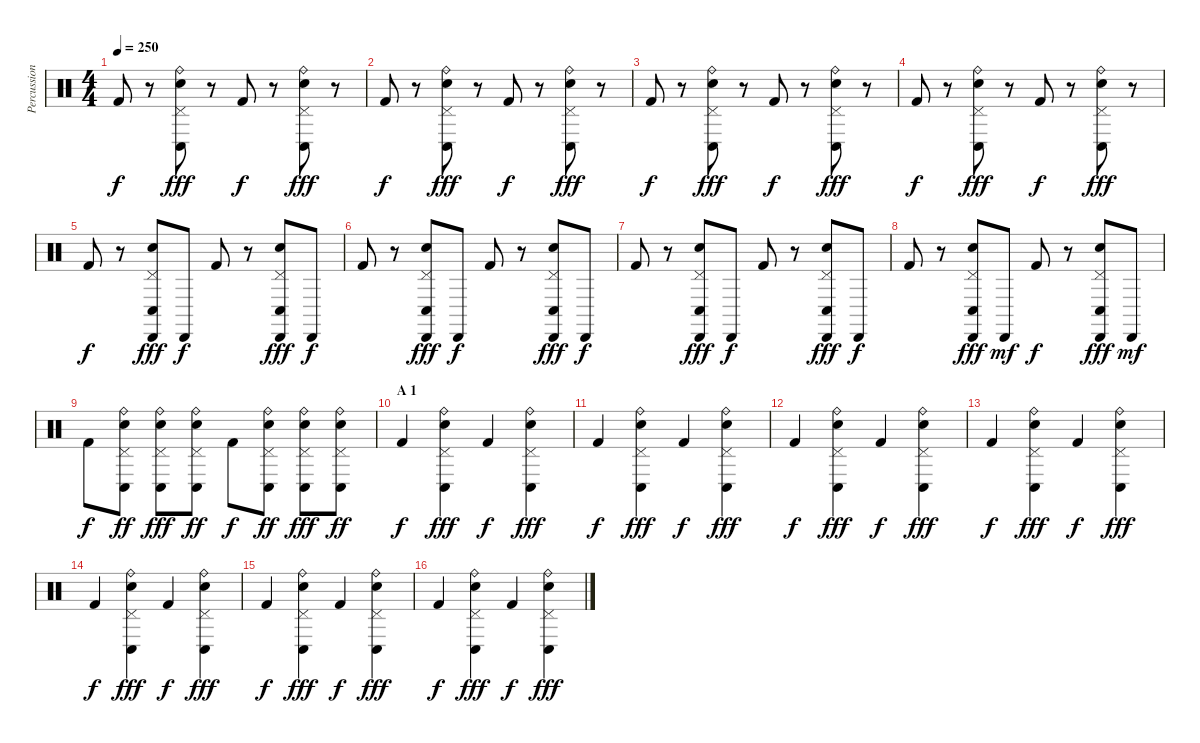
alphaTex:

\track ("Percussion" "Percussion") {instrument percussion}
\staff {score}
\articulation defaults
\ts (4 4)
\tempo 250
\clef neutral
\ks c "Kick (hit) 2".8{dy f}
r.8 ("Ride (bell)" "Pedal Hi-Hat (hit)" "Conga low (hit)" "Electric Snare (hit)").8{dy fff} r.8 "Kick (hit) 2".8{dy f} r.8 ("Ride (bell)" "Pedal Hi-Hat (hit)" "Conga low (hit)" "Electric Snare (hit)").8{dy fff} r.8 |
"Kick (hit) 2".8{dy f} r.8 ("Ride (bell)" "Pedal Hi-Hat (hit)" "Conga low (hit)" "Electric Snare (hit)").8{dy fff} r.8 "Kick (hit) 2".8{dy f} r.8 ("Ride (bell)" "Pedal Hi-Hat (hit)" "Conga low (hit)" "Electric Snare (hit)").8{dy fff} r.8 |
"Kick (hit) 2".8{dy f} r.8 ("Ride (bell)" "Pedal Hi-Hat (hit)" "Conga low (hit)" "Electric Snare (hit)").8{dy fff} r.8 "Kick (hit) 2".8{dy f} r.8 ("Ride (bell)" "Pedal Hi-Hat (hit)" "Conga low (hit)" "Electric Snare (hit)").8{dy fff} r.8 |
"Kick (hit) 2".8{dy f} r.8 ("Ride (bell)" "Pedal Hi-Hat (hit)" "Conga low (hit)" "Electric Snare (hit)").8{dy fff} r.8 "Kick (hit) 2".8{dy f} r.8 ("Ride (bell)" "Pedal Hi-Hat (hit)" "Conga low (hit)" "Electric Snare (hit)").8{dy fff} r.8 |
"Kick (hit) 2".8{dy f} r.8 ("Cabasa (hit)" "Pedal Hi-Hat (hit)" "Conga low (hit)" "Electric Snare (hit)").8{dy fff} "Cabasa (hit)".8{dy f} "Kick (hit) 2".8 r.8 ("Cabasa (hit)" "Pedal Hi-Hat (hit)" "Conga low (hit)" "Electric Snare (hit)").8{dy fff} "Cabasa (hit)".8{dy f} |
"Kick (hit) 2".8 r.8 ("Cabasa (hit)" "Pedal Hi-Hat (hit)" "Conga low (hit)" "Electric Snare (hit)").8{dy fff} "Cabasa (hit)".8{dy f} "Kick (hit) 2".8 r.8 ("Cabasa (hit)" "Pedal Hi-Hat (hit)" "Conga low (hit)" "Electric Snare (hit)").8{dy fff} "Cabasa (hit)".8{dy f} |
"Kick (hit) 2".8 r.8 ("Cabasa (hit)" "Pedal Hi-Hat (hit)" "Conga low (hit)" "Electric Snare (hit)").8{dy fff} "Cabasa (hit)".8{dy f} "Kick (hit) 2".8 r.8 ("Cabasa (hit)" "Pedal Hi-Hat (hit)" "Conga low (hit)" "Electric Snare (hit)").8{dy fff} "Cabasa (hit)".8{dy f} |
"Kick (hit) 2".8 r.8 ("Cabasa (hit)" "Pedal Hi-Hat (hit)" "Conga low (hit)" "Electric Snare (hit)").8{dy fff} "Cabasa (hit)".8{dy mf} "Kick (hit) 2".8{dy f} r.8 ("Cabasa (hit)" "Pedal Hi-Hat (hit)" "Conga low (hit)" "Electric Snare (hit)").8{dy fff} "Cabasa (hit)".8{dy mf} |
"Kick (hit) 2".8{dy f} ("Ride (bell)" "Pedal Hi-Hat (hit)" "Conga low (hit)" "Electric Snare (hit)").8{dy ff} ("Ride (bell)" "Pedal Hi-Hat (hit)" "Conga low (hit)" "Electric Snare (hit)").8{dy fff} ("Ride (bell)" "Pedal Hi-Hat (hit)" "Conga low (hit)" "Electric Snare (hit)").8{dy ff} "Kick (hit) 2".8{dy f} ("Ride (bell)" "Pedal Hi-Hat (hit)" "Conga low (hit)" "Electric Snare (hit)").8{dy ff} ("Ride (bell)" "Pedal Hi-Hat (hit)" "Conga low (hit)" "Electric Snare (hit)").8{dy fff} ("Ride (bell)" "Pedal Hi-Hat (hit)" "Conga low (hit)" "Electric Snare (hit)").8{dy ff} |
\section ("" "A 1")
"Kick (hit) 2".4{dy f} ("Ride (bell)" "Pedal Hi-Hat (hit)" "Conga low (hit)" "Electric Snare (hit)").4{dy fff} "Kick (hit) 2".4{dy f} ("Ride (bell)" "Pedal Hi-Hat (hit)" "Conga low (hit)" "Electric Snare (hit)").4{dy fff} |
"Kick (hit) 2".4{dy f} ("Ride (bell)" "Pedal Hi-Hat (hit)" "Conga low (hit)" "Electric Snare (hit)").4{dy fff} "Kick (hit) 2".4{dy f} ("Ride (bell)" "Pedal Hi-Hat (hit)" "Conga low (hit)" "Electric Snare (hit)").4{dy fff} |
"Kick (hit) 2".4{dy f} ("Ride (bell)" "Pedal Hi-Hat (hit)" "Conga low (hit)" "Electric Snare (hit)").4{dy fff} "Kick (hit) 2".4{dy f} ("Ride (bell)" "Pedal Hi-Hat (hit)" "Conga low (hit)" "Electric Snare (hit)").4{dy fff} |
"Kick (hit) 2".4{dy f} ("Ride (bell)" "Pedal Hi-Hat (hit)" "Conga low (hit)" "Electric Snare (hit)").4{dy fff} "Kick (hit) 2".4{dy f} ("Ride (bell)" "Pedal Hi-Hat (hit)" "Conga low (hit)" "Electric Snare (hit)").4{dy fff} |
"Kick (hit) 2".4{dy f} ("Ride (bell)" "Pedal Hi-Hat (hit)" "Conga low (hit)" "Electric Snare (hit)").4{dy fff} "Kick (hit) 2".4{dy f} ("Ride (bell)" "Pedal Hi-Hat (hit)" "Conga low (hit)" "Electric Snare (hit)").4{dy fff} |
"Kick (hit) 2".4{dy f} ("Ride (bell)" "Pedal Hi-Hat (hit)" "Conga low (hit)" "Electric Snare (hit)").4{dy fff} "Kick (hit) 2".4{dy f} ("Ride (bell)" "Pedal Hi-Hat (hit)" "Conga low (hit)" "Electric Snare (hit)").4{dy fff} |
"Kick (hit) 2".4{dy f} ("Ride (bell)" "Pedal Hi-Hat (hit)" "Conga low (hit)" "Electric Snare (hit)").4{dy fff} "Kick (hit) 2".4{dy f} ("Ride (bell)" "Pedal Hi-Hat (hit)" "Conga low (hit)" "Electric Snare (hit)").4{dy fff}
